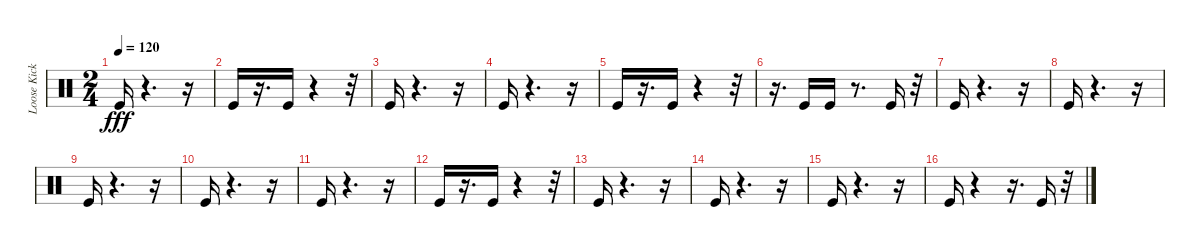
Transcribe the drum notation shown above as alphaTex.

\track ("Loose Kick (1) (1) (1) (1)" "Loose Kick") {instrument percussion}
\staff {score}
\articulation defaults
\ts (2 4)
\tempo 120
\clef neutral
\ks c "Kick (hit)".16{dy fff}
r.4{d} r.16 |
"Kick (hit)".16 r.16{d} "Kick (hit)".16 r.4 r.32 |
"Kick (hit)".16 r.4{d} r.16 |
"Kick (hit)".16 r.4{d} r.16 |
"Kick (hit)".16 r.16{d} "Kick (hit)".16 r.4 r.32 |
r.16{d} "Kick (hit)".16 "Kick (hit)".16 r.8{d} "Kick (hit)".16 r.32 |
"Kick (hit)".16 r.4{d} r.16 |
"Kick (hit)".16 r.4{d} r.16 |
"Kick (hit)".16 r.4{d} r.16 |
"Kick (hit)".16 r.4{d} r.16 |
"Kick (hit)".16 r.4{d} r.16 |
"Kick (hit)".16 r.16{d} "Kick (hit)".16 r.4 r.32 |
"Kick (hit)".16 r.4{d} r.16 |
"Kick (hit)".16 r.4{d} r.16 |
"Kick (hit)".16 r.4{d} r.16 |
"Kick (hit)".16 r.4 r.16{d} "Kick (hit)".16 r.32
